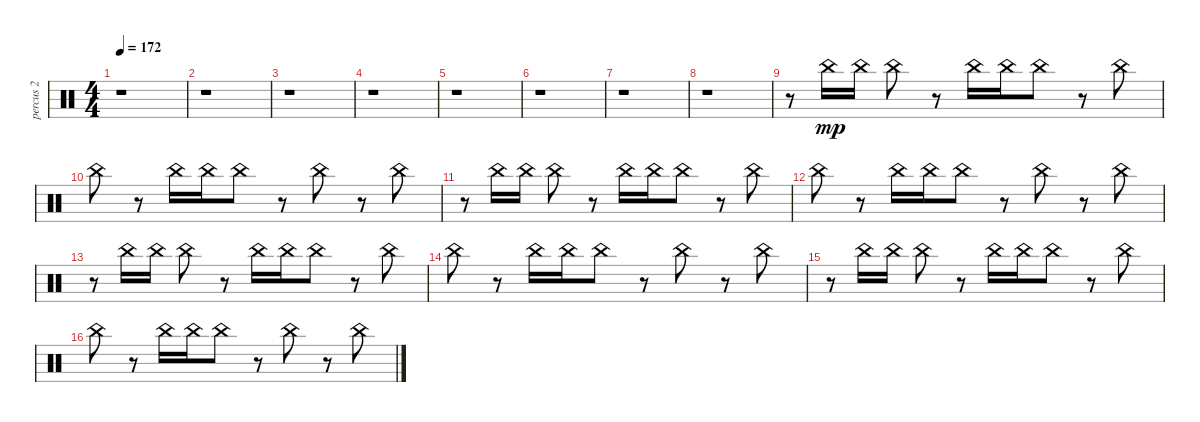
\track ("percus 2" "percus 2") {instrument percussion}
\staff {score}
\articulation defaults
\ts (4 4)
\tempo 172
\clef neutral
\ks c
r.1{dy mp} |
r.1 |
r.1 |
r.1 |
r.1 |
r.1 |
r.1 |
r.1 |
r.8 "China (hit)".16 "China (hit)".16 "China (hit)".8 r.8 "China (hit)".16 "China (hit)".16 "China (hit)".8 r.8 "China (hit)".8 |
"China (hit)".8 r.8 "China (hit)".16 "China (hit)".16 "China (hit)".8 r.8 "China (hit)".8 r.8 "China (hit)".8 |
r.8 "China (hit)".16 "China (hit)".16 "China (hit)".8 r.8 "China (hit)".16 "China (hit)".16 "China (hit)".8 r.8 "China (hit)".8 |
"China (hit)".8 r.8 "China (hit)".16 "China (hit)".16 "China (hit)".8 r.8 "China (hit)".8 r.8 "China (hit)".8 |
r.8 "China (hit)".16 "China (hit)".16 "China (hit)".8 r.8 "China (hit)".16 "China (hit)".16 "China (hit)".8 r.8 "China (hit)".8 |
"China (hit)".8 r.8 "China (hit)".16 "China (hit)".16 "China (hit)".8 r.8 "China (hit)".8 r.8 "China (hit)".8 |
r.8 "China (hit)".16 "China (hit)".16 "China (hit)".8 r.8 "China (hit)".16 "China (hit)".16 "China (hit)".8 r.8 "China (hit)".8 |
"China (hit)".8 r.8 "China (hit)".16 "China (hit)".16 "China (hit)".8 r.8 "China (hit)".8 r.8 "China (hit)".8
